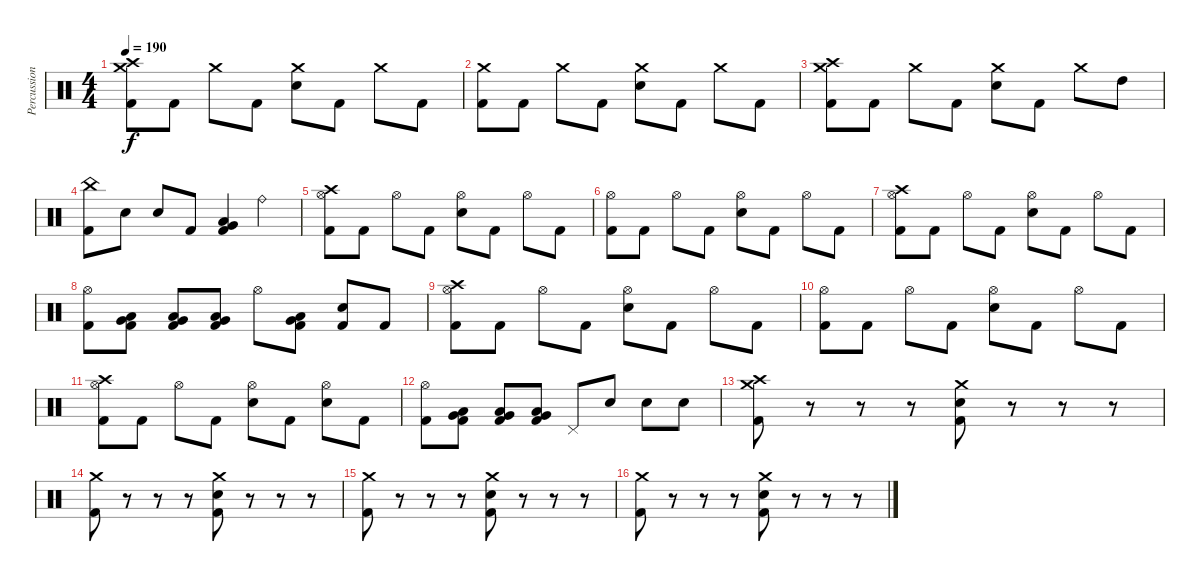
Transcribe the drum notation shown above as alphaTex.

\track ("Percussion" "Percussion") {instrument percussion}
\staff {score}
\articulation defaults
\ts (4 4)
\tempo 190
\clef neutral
\ks c
("Crash high (hit)" "Crash medium (hit)" "Kick (hit) 2").8{dy f} "Kick (hit) 2".8 "Crash medium (hit)".8 "Kick (hit) 2".8 ("Crash medium (hit)" "Electric Snare (hit)").8 "Kick (hit) 2".8 "Crash medium (hit)".8 "Kick (hit) 2".8 |
("Crash medium (hit)" "Kick (hit) 2").8 "Kick (hit) 2".8 "Crash medium (hit)".8 "Kick (hit) 2".8 ("Crash medium (hit)" "Electric Snare (hit)").8 "Kick (hit) 2".8 "Crash medium (hit)".8 "Kick (hit) 2".8 |
("Crash high (hit)" "Crash medium (hit)" "Kick (hit) 2").8 "Kick (hit) 2".8 "Crash medium (hit)".8 "Kick (hit) 2".8 ("Crash medium (hit)" "Electric Snare (hit)").8 "Kick (hit) 2".8 "Crash medium (hit)".8 "High Tom (hit)".8 |
("China (hit)" "Kick (hit) 2").8 "Electric Snare (hit)".8 "Electric Snare (hit)".8 "Kick (hit) 2".8 ("Very Low Tom (hit)" "Low Floor Tom (hit)" "Kick (hit) 2").4 "Ride (bell)".4 |
("Crash high (hit)" "Hi-Hat (open)" "Kick (hit) 2").8 "Kick (hit) 2".8 "Hi-Hat (open)".8 "Kick (hit) 2".8 ("Hi-Hat (open)" "Electric Snare (hit)").8 "Kick (hit) 2".8 "Hi-Hat (open)".8 "Kick (hit) 2".8 |
("Hi-Hat (open)" "Kick (hit) 2").8 "Kick (hit) 2".8 "Hi-Hat (open)".8 "Kick (hit) 2".8 ("Hi-Hat (open)" "Electric Snare (hit)").8 "Kick (hit) 2".8 "Hi-Hat (open)".8 "Kick (hit) 2".8 |
("Crash high (hit)" "Hi-Hat (open)" "Kick (hit) 2").8 "Kick (hit) 2".8 "Hi-Hat (open)".8 "Kick (hit) 2".8 ("Hi-Hat (open)" "Electric Snare (hit)").8 "Kick (hit) 2".8 "Hi-Hat (open)".8 "Kick (hit) 2".8 |
("Hi-Hat (open)" "Kick (hit) 2").8 ("Very Low Tom (hit)" "Low Floor Tom (hit)" "Kick (hit) 2").8 ("Very Low Tom (hit)" "Low Floor Tom (hit)" "Kick (hit) 2").8 ("Very Low Tom (hit)" "Low Floor Tom (hit)" "Kick (hit) 2").8 "Hi-Hat (open)".8 ("Very Low Tom (hit)" "Low Floor Tom (hit)" "Kick (hit) 2").8 ("Electric Snare (hit)" "Kick (hit) 2").8 "Kick (hit) 2".8 |
("Crash high (hit)" "Hi-Hat (open)" "Kick (hit) 2").8 "Kick (hit) 2".8 "Hi-Hat (open)".8 "Kick (hit) 2".8 ("Hi-Hat (open)" "Electric Snare (hit)").8 "Kick (hit) 2".8 "Hi-Hat (open)".8 "Kick (hit) 2".8 |
("Hi-Hat (open)" "Kick (hit) 2").8 "Kick (hit) 2".8 "Hi-Hat (open)".8 "Kick (hit) 2".8 ("Hi-Hat (open)" "Electric Snare (hit)").8 "Kick (hit) 2".8 "Hi-Hat (open)".8 "Kick (hit) 2".8 |
("Crash high (hit)" "Hi-Hat (open)" "Kick (hit) 2").8 "Kick (hit) 2".8 "Hi-Hat (open)".8 "Kick (hit) 2".8 ("Hi-Hat (open)" "Electric Snare (hit)").8 "Kick (hit) 2".8 ("Hi-Hat (open)" "Electric Snare (hit)").8 "Kick (hit) 2".8 |
("Hi-Hat (open)" "Kick (hit) 2").8 ("Very Low Tom (hit)" "Low Floor Tom (hit)" "Kick (hit) 2").8 ("Very Low Tom (hit)" "Low Floor Tom (hit)" "Kick (hit) 2").8 ("Very Low Tom (hit)" "Low Floor Tom (hit)" "Kick (hit) 2").8 "Pedal Hi-Hat (hit)".8 "Electric Snare (hit)".8 "Electric Snare (hit)".8 "Electric Snare (hit)".8 |
("Crash high (hit)" "Crash medium (hit)" "Kick (hit) 2").8 r.8 r.8 r.8 ("Crash medium (hit)" "Electric Snare (hit)" "Kick (hit) 2").8 r.8 r.8 r.8 |
("Crash medium (hit)" "Kick (hit) 2").8 r.8 r.8 r.8 ("Crash medium (hit)" "Electric Snare (hit)" "Kick (hit) 2").8 r.8 r.8 r.8 |
("Crash medium (hit)" "Kick (hit) 2").8 r.8 r.8 r.8 ("Crash medium (hit)" "Electric Snare (hit)" "Kick (hit) 2").8 r.8 r.8 r.8 |
("Crash medium (hit)" "Kick (hit) 2").8 r.8 r.8 r.8 ("Crash medium (hit)" "Electric Snare (hit)" "Kick (hit) 2").8 r.8 r.8 r.8
